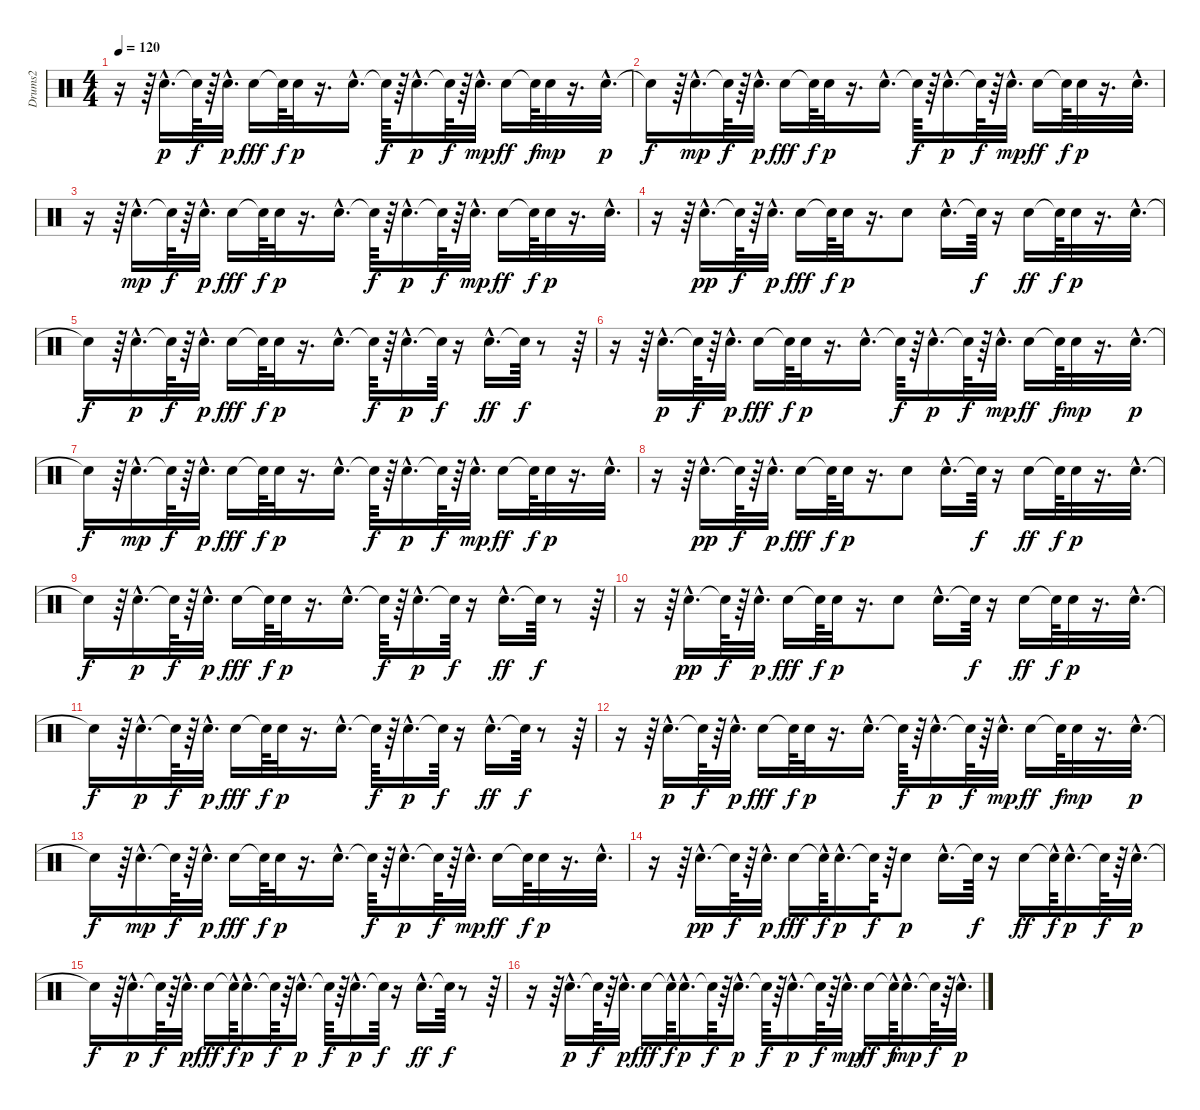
\track ("Drums2" "Drums2") {instrument percussion}
\staff {score}
\articulation defaults
\ts (4 4)
\tempo 120
\clef neutral
\ks c
r.16{dy f} r.64 "Electric Snare (hit)"{hac}.16{d dy p} "Snare (hit)"{t}.64{dy f} r.64 "Electric Snare (hit)"{hac}.32{d dy p} "Electric Snare (hit)".16{dy fff} "Snare (hit)"{t}.64{dy f} "Electric Snare (hit)".32{dy p} r.16{d} "Electric Snare (hit)"{hac}.16{d} "Snare (hit)"{t}.64{dy f} r.64 "Electric Snare (hit)"{hac}.16{d dy p} "Snare (hit)"{t}.64{dy f} r.64 "Electric Snare (hit)"{hac}.32{d dy mp} "Electric Snare (hit)".16{dy ff} "Snare (hit)"{t}.64{dy f} "Electric Snare (hit)".32{dy mp} r.16{d} "Electric Snare (hit)"{hac}.32{d dy p} |
"Snare (hit)"{t}.16{dy f} r.64 "Electric Snare (hit)"{hac}.16{d dy mp} "Snare (hit)"{t}.64{dy f} r.64 "Electric Snare (hit)"{hac}.32{d dy p} "Electric Snare (hit)".16{dy fff} "Snare (hit)"{t}.64{dy f} "Electric Snare (hit)".32{dy p} r.16{d} "Electric Snare (hit)"{hac}.16{d} "Snare (hit)"{t}.64{dy f} r.64 "Electric Snare (hit)"{hac}.16{d dy p} "Snare (hit)"{t}.64{dy f} r.64 "Electric Snare (hit)"{hac}.32{d dy mp} "Electric Snare (hit)".16{dy ff} "Snare (hit)"{t}.64{dy f} "Electric Snare (hit)".32{dy p} r.16{d} "Electric Snare (hit)"{hac}.32{d} |
r.16 r.64 "Electric Snare (hit)"{hac}.16{d dy mp} "Snare (hit)"{t}.64{dy f} r.64 "Electric Snare (hit)"{hac}.32{d dy p} "Electric Snare (hit)".16{dy fff} "Snare (hit)"{t}.64{dy f} "Electric Snare (hit)".32{dy p} r.16{d} "Electric Snare (hit)"{hac}.16{d} "Snare (hit)"{t}.64{dy f} r.64 "Electric Snare (hit)"{hac}.16{d dy p} "Snare (hit)"{t}.64{dy f} r.64 "Electric Snare (hit)"{hac}.32{d dy mp} "Electric Snare (hit)".16{dy ff} "Snare (hit)"{t}.64{dy f} "Electric Snare (hit)".32{dy p} r.16{d} "Electric Snare (hit)"{hac}.32{d} |
r.16 r.64 "Electric Snare (hit)"{hac}.16{d dy pp} "Snare (hit)"{t}.64{dy f} r.64 "Electric Snare (hit)"{hac}.32{d dy p} "Electric Snare (hit)".16{dy fff} "Snare (hit)"{t}.64{dy f} "Electric Snare (hit)".32{dy p} r.16{d} "Electric Snare (hit)".8 "Electric Snare (hit)"{hac}.16{d} "Snare (hit)"{t}.64{dy f} r.16 "Electric Snare (hit)".16{dy ff} "Snare (hit)"{t}.64{dy f} "Electric Snare (hit)".32{dy p} r.16{d} "Electric Snare (hit)"{hac}.32{d} |
"Snare (hit)"{t}.16{dy f} r.64 "Electric Snare (hit)"{hac}.16{d dy p} "Snare (hit)"{t}.64{dy f} r.64 "Electric Snare (hit)"{hac}.32{d dy p} "Electric Snare (hit)".16{dy fff} "Snare (hit)"{t}.64{dy f} "Electric Snare (hit)".32{dy p} r.16{d} "Electric Snare (hit)"{hac}.16{d} "Snare (hit)"{t}.64{dy f} r.64 "Electric Snare (hit)"{hac}.16{d dy p} "Snare (hit)"{t}.64{dy f} r.16 "Electric Snare (hit)"{hac}.16{d dy ff} "Snare (hit)"{t}.64{dy f} r.8 r.64 |
r.16 r.64 "Electric Snare (hit)"{hac}.16{d dy p} "Snare (hit)"{t}.64{dy f} r.64 "Electric Snare (hit)"{hac}.32{d dy p} "Electric Snare (hit)".16{dy fff} "Snare (hit)"{t}.64{dy f} "Electric Snare (hit)".32{dy p} r.16{d} "Electric Snare (hit)"{hac}.16{d} "Snare (hit)"{t}.64{dy f} r.64 "Electric Snare (hit)"{hac}.16{d dy p} "Snare (hit)"{t}.64{dy f} r.64 "Electric Snare (hit)"{hac}.32{d dy mp} "Electric Snare (hit)".16{dy ff} "Snare (hit)"{t}.64{dy f} "Electric Snare (hit)".32{dy mp} r.16{d} "Electric Snare (hit)"{hac}.32{d dy p} |
"Snare (hit)"{t}.16{dy f} r.64 "Electric Snare (hit)"{hac}.16{d dy mp} "Snare (hit)"{t}.64{dy f} r.64 "Electric Snare (hit)"{hac}.32{d dy p} "Electric Snare (hit)".16{dy fff} "Snare (hit)"{t}.64{dy f} "Electric Snare (hit)".32{dy p} r.16{d} "Electric Snare (hit)"{hac}.16{d} "Snare (hit)"{t}.64{dy f} r.64 "Electric Snare (hit)"{hac}.16{d dy p} "Snare (hit)"{t}.64{dy f} r.64 "Electric Snare (hit)"{hac}.32{d dy mp} "Electric Snare (hit)".16{dy ff} "Snare (hit)"{t}.64{dy f} "Electric Snare (hit)".32{dy p} r.16{d} "Electric Snare (hit)"{hac}.32{d} |
r.16 r.64 "Electric Snare (hit)"{hac}.16{d dy pp} "Snare (hit)"{t}.64{dy f} r.64 "Electric Snare (hit)"{hac}.32{d dy p} "Electric Snare (hit)".16{dy fff} "Snare (hit)"{t}.64{dy f} "Electric Snare (hit)".32{dy p} r.16{d} "Electric Snare (hit)".8 "Electric Snare (hit)"{hac}.16{d} "Snare (hit)"{t}.64{dy f} r.16 "Electric Snare (hit)".16{dy ff} "Snare (hit)"{t}.64{dy f} "Electric Snare (hit)".32{dy p} r.16{d} "Electric Snare (hit)"{hac}.32{d} |
"Snare (hit)"{t}.16{dy f} r.64 "Electric Snare (hit)"{hac}.16{d dy p} "Snare (hit)"{t}.64{dy f} r.64 "Electric Snare (hit)"{hac}.32{d dy p} "Electric Snare (hit)".16{dy fff} "Snare (hit)"{t}.64{dy f} "Electric Snare (hit)".32{dy p} r.16{d} "Electric Snare (hit)"{hac}.16{d} "Snare (hit)"{t}.64{dy f} r.64 "Electric Snare (hit)"{hac}.16{d dy p} "Snare (hit)"{t}.64{dy f} r.16 "Electric Snare (hit)"{hac}.16{d dy ff} "Snare (hit)"{t}.64{dy f} r.8 r.64 |
r.16 r.64 "Electric Snare (hit)"{hac}.16{d dy pp} "Snare (hit)"{t}.64{dy f} r.64 "Electric Snare (hit)"{hac}.32{d dy p} "Electric Snare (hit)".16{dy fff} "Snare (hit)"{t}.64{dy f} "Electric Snare (hit)".32{dy p} r.16{d} "Electric Snare (hit)".8 "Electric Snare (hit)"{hac}.16{d} "Snare (hit)"{t}.64{dy f} r.16 "Electric Snare (hit)".16{dy ff} "Snare (hit)"{t}.64{dy f} "Electric Snare (hit)".32{dy p} r.16{d} "Electric Snare (hit)"{hac}.32{d} |
"Snare (hit)"{t}.16{dy f} r.64 "Electric Snare (hit)"{hac}.16{d dy p} "Snare (hit)"{t}.64{dy f} r.64 "Electric Snare (hit)"{hac}.32{d dy p} "Electric Snare (hit)".16{dy fff} "Snare (hit)"{t}.64{dy f} "Electric Snare (hit)".32{dy p} r.16{d} "Electric Snare (hit)"{hac}.16{d} "Snare (hit)"{t}.64{dy f} r.64 "Electric Snare (hit)"{hac}.16{d dy p} "Snare (hit)"{t}.64{dy f} r.16 "Electric Snare (hit)"{hac}.16{d dy ff} "Snare (hit)"{t}.64{dy f} r.8 r.64 |
r.16 r.64 "Electric Snare (hit)"{hac}.16{d dy p} "Snare (hit)"{t}.64{dy f} r.64 "Electric Snare (hit)"{hac}.32{d dy p} "Electric Snare (hit)".16{dy fff} "Snare (hit)"{t}.64{dy f} "Electric Snare (hit)".32{dy p} r.16{d} "Electric Snare (hit)"{hac}.16{d} "Snare (hit)"{t}.64{dy f} r.64 "Electric Snare (hit)"{hac}.16{d dy p} "Snare (hit)"{t}.64{dy f} r.64 "Electric Snare (hit)"{hac}.32{d dy mp} "Electric Snare (hit)".16{dy ff} "Snare (hit)"{t}.64{dy f} "Electric Snare (hit)".32{dy mp} r.16{d} "Electric Snare (hit)"{hac}.32{d dy p} |
"Snare (hit)"{t}.16{dy f} r.64 "Electric Snare (hit)"{hac}.16{d dy mp} "Snare (hit)"{t}.64{dy f} r.64 "Electric Snare (hit)"{hac}.32{d dy p} "Electric Snare (hit)".16{dy fff} "Snare (hit)"{t}.64{dy f} "Electric Snare (hit)".32{dy p} r.16{d} "Electric Snare (hit)"{hac}.16{d} "Snare (hit)"{t}.64{dy f} r.64 "Electric Snare (hit)"{hac}.16{d dy p} "Snare (hit)"{t}.64{dy f} r.64 "Electric Snare (hit)"{hac}.32{d dy mp} "Electric Snare (hit)".16{dy ff} "Snare (hit)"{t}.64{dy f} "Electric Snare (hit)".32{dy p} r.16{d} "Electric Snare (hit)"{hac}.32{d} |
r.16 r.64 "Electric Snare (hit)"{hac}.16{d dy pp} "Snare (hit)"{t}.64{dy f} r.64 "Electric Snare (hit)"{hac}.32{d dy p} "Snare (hit) 2".16{dy fff} "Snare (hit)"{hac t}.64{dy f} "Electric Snare (hit)"{hac}.16{d dy p} "Snare (hit)"{t}.64{dy f} r.64 "Electric Snare (hit)".8{dy p} "Electric Snare (hit)"{hac}.16{d} "Snare (hit)"{t}.64{dy f} r.16 "Snare (hit) 2".16{dy ff} "Snare (hit)"{hac t}.64{dy f} "Electric Snare (hit)"{hac}.16{d dy p} "Snare (hit)"{t}.64{dy f} r.64 "Electric Snare (hit)"{hac}.32{d dy p} |
"Snare (hit)"{t}.16{dy f} r.64 "Electric Snare (hit)"{hac}.16{d dy p} "Snare (hit)"{t}.64{dy f} r.64 "Electric Snare (hit)"{hac}.32{d dy p} "Snare (hit) 2".16{dy fff} "Snare (hit)"{hac t}.64{dy f} "Electric Snare (hit)"{hac}.16{d dy p} "Snare (hit)"{t}.64{dy f} r.64 "Electric Snare (hit)"{hac}.16{d dy p} "Snare (hit)"{t}.64{dy f} r.64 "Electric Snare (hit)"{hac}.16{d dy p} "Snare (hit)"{t}.64{dy f} r.16 "Snare (hit) 2"{hac}.16{d dy ff} "Snare (hit)"{t}.64{dy f} r.8 r.64 |
r.16 r.64 "Electric Snare (hit)"{hac}.16{d dy p} "Snare (hit)"{t}.64{dy f} r.64 "Electric Snare (hit)"{hac}.32{d dy p} "Snare (hit) 2".16{dy fff} "Snare (hit)"{hac t}.64{dy f} "Electric Snare (hit)"{hac}.16{d dy p} "Snare (hit)"{t}.64{dy f} r.64 "Electric Snare (hit)"{hac}.16{d dy p} "Snare (hit)"{t}.64{dy f} r.64 "Electric Snare (hit)"{hac}.16{d dy p} "Snare (hit)"{t}.64{dy f} r.64 "Electric Snare (hit)"{hac}.32{d dy mp} "Snare (hit) 2".16{dy ff} "Snare (hit)"{hac t}.64{dy f} "Electric Snare (hit)"{hac}.16{d dy mp} "Snare (hit)"{t}.64{dy f} r.64 "Electric Snare (hit)"{hac}.32{d dy p}
